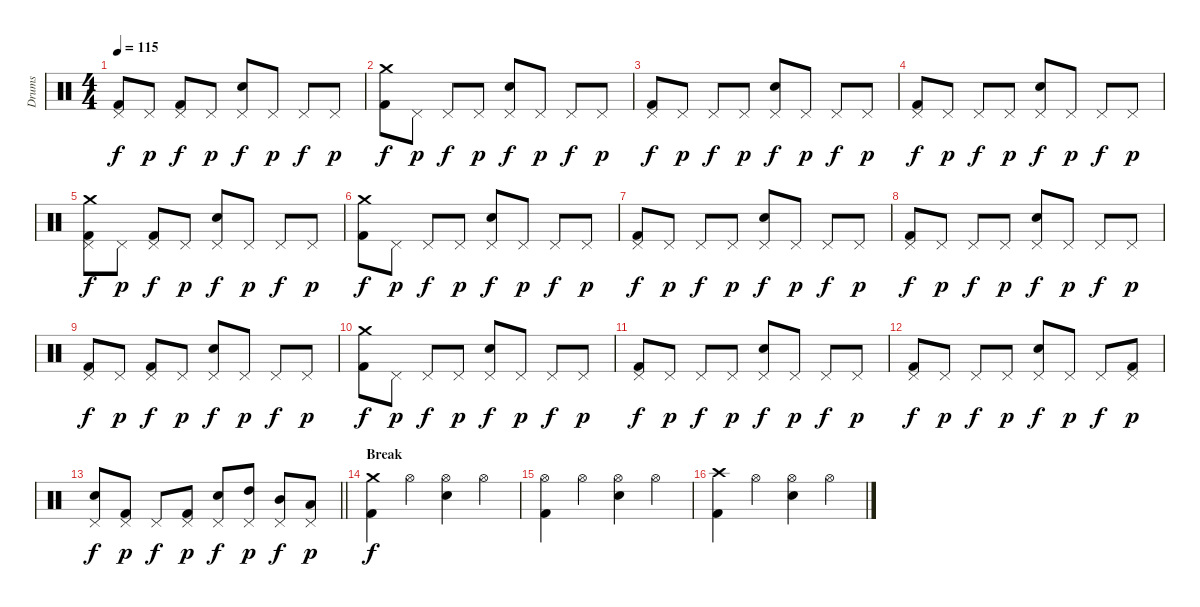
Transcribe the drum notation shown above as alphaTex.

\track ("Drums" "Drums") {instrument percussion}
\staff {score}
\articulation defaults
\ts (4 4)
\tempo 115
\clef neutral
\ks c
("Kick (hit) 2" "Pedal Hi-Hat (hit)").8{dy f} "Pedal Hi-Hat (hit)".8{dy p} ("Kick (hit) 2" "Pedal Hi-Hat (hit)").8{dy f} "Pedal Hi-Hat (hit)".8{dy p} ("Pedal Hi-Hat (hit)" "Snare (hit) 2").8{dy f} "Pedal Hi-Hat (hit)".8{dy p} "Pedal Hi-Hat (hit)".8{dy f} "Pedal Hi-Hat (hit)".8{dy p} |
("Kick (hit) 2" "Crash medium (hit)").8{dy f} "Pedal Hi-Hat (hit)".8{dy p} "Pedal Hi-Hat (hit)".8{dy f} "Pedal Hi-Hat (hit)".8{dy p} ("Pedal Hi-Hat (hit)" "Snare (hit) 2").8{dy f} "Pedal Hi-Hat (hit)".8{dy p} "Pedal Hi-Hat (hit)".8{dy f} "Pedal Hi-Hat (hit)".8{dy p} |
("Kick (hit) 2" "Pedal Hi-Hat (hit)").8{dy f} "Pedal Hi-Hat (hit)".8{dy p} "Pedal Hi-Hat (hit)".8{dy f} "Pedal Hi-Hat (hit)".8{dy p} ("Pedal Hi-Hat (hit)" "Snare (hit) 2").8{dy f} "Pedal Hi-Hat (hit)".8{dy p} "Pedal Hi-Hat (hit)".8{dy f} "Pedal Hi-Hat (hit)".8{dy p} |
("Kick (hit) 2" "Pedal Hi-Hat (hit)").8{dy f} "Pedal Hi-Hat (hit)".8{dy p} "Pedal Hi-Hat (hit)".8{dy f} "Pedal Hi-Hat (hit)".8{dy p} ("Pedal Hi-Hat (hit)" "Snare (hit) 2").8{dy f} "Pedal Hi-Hat (hit)".8{dy p} "Pedal Hi-Hat (hit)".8{dy f} "Pedal Hi-Hat (hit)".8{dy p} |
("Kick (hit) 2" "Crash medium (hit)" "Pedal Hi-Hat (hit)").8{dy f} "Pedal Hi-Hat (hit)".8{dy p} ("Kick (hit) 2" "Pedal Hi-Hat (hit)").8{dy f} "Pedal Hi-Hat (hit)".8{dy p} ("Pedal Hi-Hat (hit)" "Snare (hit) 2").8{dy f} "Pedal Hi-Hat (hit)".8{dy p} "Pedal Hi-Hat (hit)".8{dy f} "Pedal Hi-Hat (hit)".8{dy p} |
("Kick (hit) 2" "Crash medium (hit)").8{dy f} "Pedal Hi-Hat (hit)".8{dy p} "Pedal Hi-Hat (hit)".8{dy f} "Pedal Hi-Hat (hit)".8{dy p} ("Pedal Hi-Hat (hit)" "Snare (hit) 2").8{dy f} "Pedal Hi-Hat (hit)".8{dy p} "Pedal Hi-Hat (hit)".8{dy f} "Pedal Hi-Hat (hit)".8{dy p} |
("Kick (hit) 2" "Pedal Hi-Hat (hit)").8{dy f} "Pedal Hi-Hat (hit)".8{dy p} "Pedal Hi-Hat (hit)".8{dy f} "Pedal Hi-Hat (hit)".8{dy p} ("Pedal Hi-Hat (hit)" "Snare (hit) 2").8{dy f} "Pedal Hi-Hat (hit)".8{dy p} "Pedal Hi-Hat (hit)".8{dy f} "Pedal Hi-Hat (hit)".8{dy p} |
("Kick (hit) 2" "Pedal Hi-Hat (hit)").8{dy f} "Pedal Hi-Hat (hit)".8{dy p} "Pedal Hi-Hat (hit)".8{dy f} "Pedal Hi-Hat (hit)".8{dy p} ("Pedal Hi-Hat (hit)" "Snare (hit) 2").8{dy f} "Pedal Hi-Hat (hit)".8{dy p} "Pedal Hi-Hat (hit)".8{dy f} "Pedal Hi-Hat (hit)".8{dy p} |
("Kick (hit) 2" "Pedal Hi-Hat (hit)").8{dy f} "Pedal Hi-Hat (hit)".8{dy p} ("Kick (hit) 2" "Pedal Hi-Hat (hit)").8{dy f} "Pedal Hi-Hat (hit)".8{dy p} ("Pedal Hi-Hat (hit)" "Snare (hit) 2").8{dy f} "Pedal Hi-Hat (hit)".8{dy p} "Pedal Hi-Hat (hit)".8{dy f} "Pedal Hi-Hat (hit)".8{dy p} |
("Kick (hit) 2" "Crash medium (hit)").8{dy f} "Pedal Hi-Hat (hit)".8{dy p} "Pedal Hi-Hat (hit)".8{dy f} "Pedal Hi-Hat (hit)".8{dy p} ("Pedal Hi-Hat (hit)" "Snare (hit) 2").8{dy f} "Pedal Hi-Hat (hit)".8{dy p} "Pedal Hi-Hat (hit)".8{dy f} "Pedal Hi-Hat (hit)".8{dy p} |
("Kick (hit) 2" "Pedal Hi-Hat (hit)").8{dy f} "Pedal Hi-Hat (hit)".8{dy p} "Pedal Hi-Hat (hit)".8{dy f} "Pedal Hi-Hat (hit)".8{dy p} ("Pedal Hi-Hat (hit)" "Snare (hit) 2").8{dy f} "Pedal Hi-Hat (hit)".8{dy p} "Pedal Hi-Hat (hit)".8{dy f} "Pedal Hi-Hat (hit)".8{dy p} |
("Kick (hit) 2" "Pedal Hi-Hat (hit)").8{dy f} "Pedal Hi-Hat (hit)".8{dy p} "Pedal Hi-Hat (hit)".8{dy f} "Pedal Hi-Hat (hit)".8{dy p} ("Pedal Hi-Hat (hit)" "Snare (hit) 2").8{dy f} "Pedal Hi-Hat (hit)".8{dy p} "Pedal Hi-Hat (hit)".8{dy f} ("Kick (hit) 2" "Pedal Hi-Hat (hit)").8{dy p} |
\barLineRight lightlight
("Pedal Hi-Hat (hit)" "Snare (hit) 2").8{dy f} ("Kick (hit) 2" "Pedal Hi-Hat (hit)").8{dy p} "Pedal Hi-Hat (hit)".8{dy f} ("Kick (hit) 2" "Pedal Hi-Hat (hit)").8{dy p} ("Pedal Hi-Hat (hit)" "Snare (hit) 2").8{dy f} ("High Tom (hit)" "Pedal Hi-Hat (hit)").8{dy p} ("Mid Tom (hit)" "Pedal Hi-Hat (hit)").8{dy f} ("Low Tom (hit)" "Pedal Hi-Hat (hit)").8{dy p} |
\section ("" "Break")
("Kick (hit) 2" "Crash medium (hit)").4{dy f} "Hi-Hat (open)".4 ("Hi-Hat (open)" "Snare (hit) 2").4 "Hi-Hat (open)".4 |
("Kick (hit) 2" "Hi-Hat (open)").4 "Hi-Hat (open)".4 ("Hi-Hat (open)" "Snare (hit) 2").4 "Hi-Hat (open)".4 |
("Kick (hit) 2" "Crash high (hit)").4 "Hi-Hat (open)".4 ("Hi-Hat (open)" "Snare (hit) 2").4 "Hi-Hat (open)".4
